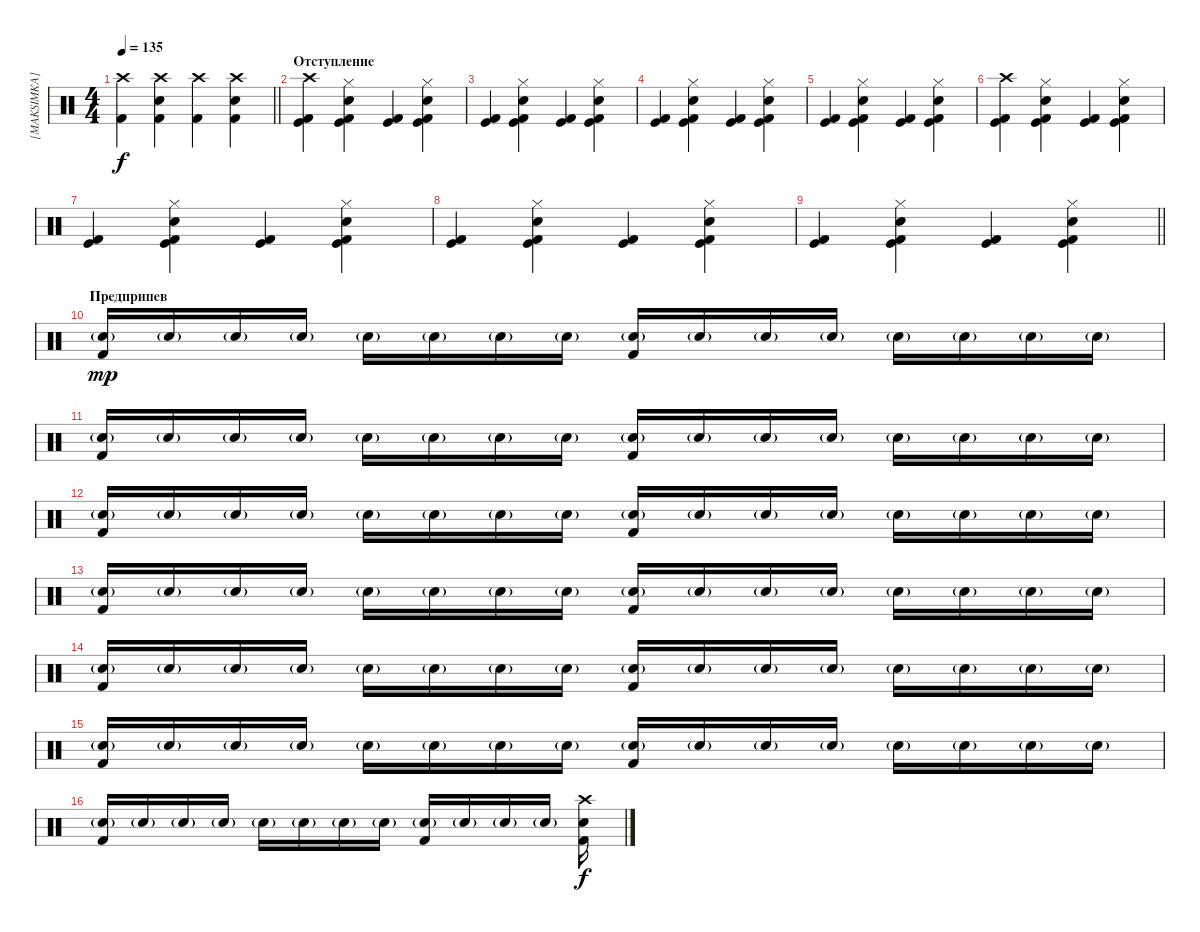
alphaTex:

\track ("[MAKSIMKA]" "[MAKSIMKA]") {instrument percussion}
\staff {score}
\articulation defaults
\ts (4 4)
\tempo 135
\clef neutral
\barLineRight lightlight
\ks c
("Crash high (hit)" "Kick (hit) 2").4{dy f} ("Crash high (hit)" "Kick (hit) 2" "Snare (hit) 2").4 ("Crash high (hit)" "Kick (hit) 2").4 ("Crash high (hit)" "Kick (hit) 2" "Snare (hit) 2").4 |
\section ("" "Отступление")
("Kick (hit) 2" "Crash high (hit)" "Kick (hit)").4 ("Kick (hit) 2" "Snare (hit) 2" "Hi-Hat (closed)" "Kick (hit)").4 ("Kick (hit) 2" "Kick (hit)").4 ("Kick (hit) 2" "Snare (hit) 2" "Hi-Hat (closed)" "Kick (hit)").4 |
("Kick (hit) 2" "Kick (hit)").4 ("Kick (hit) 2" "Snare (hit) 2" "Hi-Hat (closed)" "Kick (hit)").4 ("Kick (hit) 2" "Kick (hit)").4 ("Kick (hit) 2" "Snare (hit) 2" "Hi-Hat (closed)" "Kick (hit)").4 |
("Kick (hit) 2" "Kick (hit)").4 ("Kick (hit) 2" "Snare (hit) 2" "Hi-Hat (closed)" "Kick (hit)").4 ("Kick (hit) 2" "Kick (hit)").4 ("Kick (hit) 2" "Snare (hit) 2" "Hi-Hat (closed)" "Kick (hit)").4 |
("Kick (hit) 2" "Kick (hit)").4 ("Kick (hit) 2" "Snare (hit) 2" "Hi-Hat (closed)" "Kick (hit)").4 ("Kick (hit) 2" "Kick (hit)").4 ("Kick (hit) 2" "Snare (hit) 2" "Hi-Hat (closed)" "Kick (hit)").4 |
("Kick (hit) 2" "Crash high (hit)" "Kick (hit)").4 ("Kick (hit) 2" "Snare (hit) 2" "Hi-Hat (closed)" "Kick (hit)").4 ("Kick (hit) 2" "Kick (hit)").4 ("Kick (hit) 2" "Snare (hit) 2" "Hi-Hat (closed)" "Kick (hit)").4 |
("Kick (hit) 2" "Kick (hit)").4 ("Kick (hit) 2" "Snare (hit) 2" "Hi-Hat (closed)" "Kick (hit)").4 ("Kick (hit) 2" "Kick (hit)").4 ("Kick (hit) 2" "Snare (hit) 2" "Hi-Hat (closed)" "Kick (hit)").4 |
("Kick (hit) 2" "Kick (hit)").4 ("Kick (hit) 2" "Snare (hit) 2" "Hi-Hat (closed)" "Kick (hit)").4 ("Kick (hit) 2" "Kick (hit)").4 ("Kick (hit) 2" "Snare (hit) 2" "Hi-Hat (closed)" "Kick (hit)").4 |
\barLineRight lightlight
("Kick (hit) 2" "Kick (hit)").4 ("Kick (hit) 2" "Snare (hit) 2" "Hi-Hat (closed)" "Kick (hit)").4 ("Kick (hit) 2" "Kick (hit)").4 ("Kick (hit) 2" "Snare (hit) 2" "Hi-Hat (closed)" "Kick (hit)").4 |
\section ("" "Предприпев")
("Kick (hit) 2" "Snare (hit) 2"{g}).16{dy mp} "Snare (hit) 2"{g}.16 "Snare (hit) 2"{g}.16 "Snare (hit) 2"{g}.16 "Snare (hit) 2"{g}.16 "Snare (hit) 2"{g}.16 "Snare (hit) 2"{g}.16 "Snare (hit) 2"{g}.16 ("Kick (hit) 2" "Snare (hit) 2"{g}).16 "Snare (hit) 2"{g}.16 "Snare (hit) 2"{g}.16 "Snare (hit) 2"{g}.16 "Snare (hit) 2"{g}.16 "Snare (hit) 2"{g}.16 "Snare (hit) 2"{g}.16 "Snare (hit) 2"{g}.16 |
("Kick (hit) 2" "Snare (hit) 2"{g}).16 "Snare (hit) 2"{g}.16 "Snare (hit) 2"{g}.16 "Snare (hit) 2"{g}.16 "Snare (hit) 2"{g}.16 "Snare (hit) 2"{g}.16 "Snare (hit) 2"{g}.16 "Snare (hit) 2"{g}.16 ("Kick (hit) 2" "Snare (hit) 2"{g}).16 "Snare (hit) 2"{g}.16 "Snare (hit) 2"{g}.16 "Snare (hit) 2"{g}.16 "Snare (hit) 2"{g}.16 "Snare (hit) 2"{g}.16 "Snare (hit) 2"{g}.16 "Snare (hit) 2"{g}.16 |
("Kick (hit) 2" "Snare (hit) 2"{g}).16 "Snare (hit) 2"{g}.16 "Snare (hit) 2"{g}.16 "Snare (hit) 2"{g}.16 "Snare (hit) 2"{g}.16 "Snare (hit) 2"{g}.16 "Snare (hit) 2"{g}.16 "Snare (hit) 2"{g}.16 ("Kick (hit) 2" "Snare (hit) 2"{g}).16 "Snare (hit) 2"{g}.16 "Snare (hit) 2"{g}.16 "Snare (hit) 2"{g}.16 "Snare (hit) 2"{g}.16 "Snare (hit) 2"{g}.16 "Snare (hit) 2"{g}.16 "Snare (hit) 2"{g}.16 |
("Kick (hit) 2" "Snare (hit) 2"{g}).16 "Snare (hit) 2"{g}.16 "Snare (hit) 2"{g}.16 "Snare (hit) 2"{g}.16 "Snare (hit) 2"{g}.16 "Snare (hit) 2"{g}.16 "Snare (hit) 2"{g}.16 "Snare (hit) 2"{g}.16 ("Kick (hit) 2" "Snare (hit) 2"{g}).16 "Snare (hit) 2"{g}.16 "Snare (hit) 2"{g}.16 "Snare (hit) 2"{g}.16 "Snare (hit) 2"{g}.16 "Snare (hit) 2"{g}.16 "Snare (hit) 2"{g}.16 "Snare (hit) 2"{g}.16 |
("Kick (hit) 2" "Snare (hit) 2"{g}).16 "Snare (hit) 2"{g}.16 "Snare (hit) 2"{g}.16 "Snare (hit) 2"{g}.16 "Snare (hit) 2"{g}.16 "Snare (hit) 2"{g}.16 "Snare (hit) 2"{g}.16 "Snare (hit) 2"{g}.16 ("Kick (hit) 2" "Snare (hit) 2"{g}).16 "Snare (hit) 2"{g}.16 "Snare (hit) 2"{g}.16 "Snare (hit) 2"{g}.16 "Snare (hit) 2"{g}.16 "Snare (hit) 2"{g}.16 "Snare (hit) 2"{g}.16 "Snare (hit) 2"{g}.16 |
("Kick (hit) 2" "Snare (hit) 2"{g}).16 "Snare (hit) 2"{g}.16 "Snare (hit) 2"{g}.16 "Snare (hit) 2"{g}.16 "Snare (hit) 2"{g}.16 "Snare (hit) 2"{g}.16 "Snare (hit) 2"{g}.16 "Snare (hit) 2"{g}.16 ("Kick (hit) 2" "Snare (hit) 2"{g}).16 "Snare (hit) 2"{g}.16 "Snare (hit) 2"{g}.16 "Snare (hit) 2"{g}.16 "Snare (hit) 2"{g}.16 "Snare (hit) 2"{g}.16 "Snare (hit) 2"{g}.16 "Snare (hit) 2"{g}.16 |
("Kick (hit) 2" "Snare (hit) 2"{g}).16 "Snare (hit) 2"{g}.16 "Snare (hit) 2"{g}.16 "Snare (hit) 2"{g}.16 "Snare (hit) 2"{g}.16 "Snare (hit) 2"{g}.16 "Snare (hit) 2"{g}.16 "Snare (hit) 2"{g}.16 ("Kick (hit) 2" "Snare (hit) 2"{g}).16 "Snare (hit) 2"{g}.16 "Snare (hit) 2"{g}.16 "Snare (hit) 2"{g}.16 ("Crash high (hit)" "Kick (hit) 2" "Snare (hit) 2").16{dy f}
